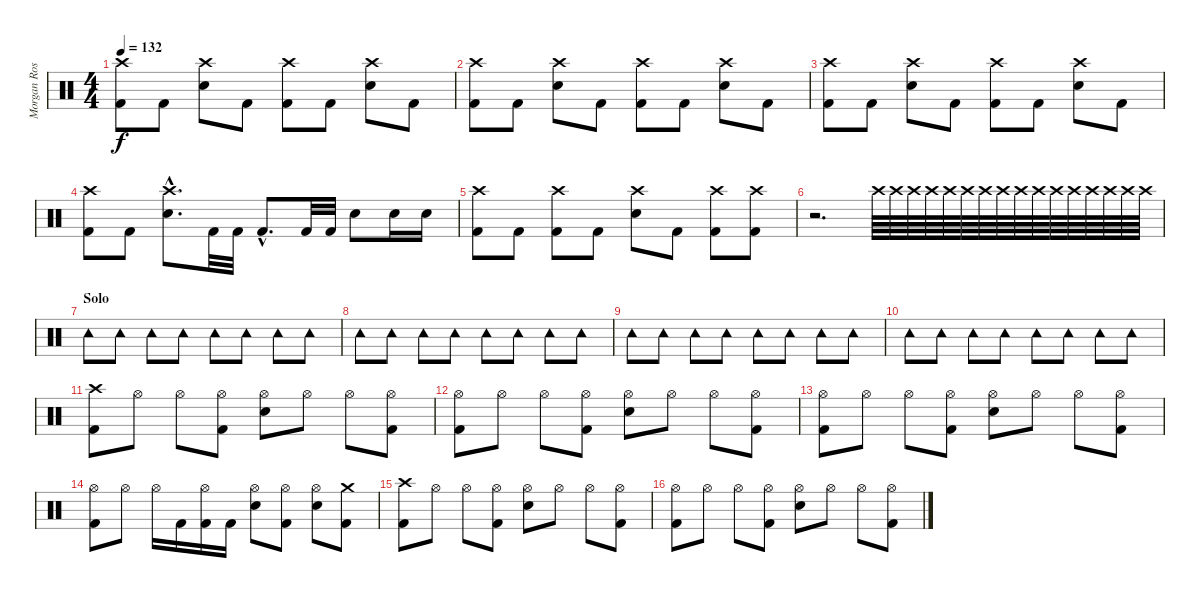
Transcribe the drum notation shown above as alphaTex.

\track ("Morgan Rose" "Morgan Ros") {instrument percussion}
\staff {score}
\articulation defaults
\ts (4 4)
\tempo 132
\clef neutral
\ks c
("Crash high (hit)" "Kick (hit) 2").8{dy f} "Kick (hit) 2".8 ("Crash high (hit)" "Electric Snare (hit)").8 "Kick (hit) 2".8 ("Crash high (hit)" "Kick (hit) 2").8 "Kick (hit) 2".8 ("Crash high (hit)" "Electric Snare (hit)").8 "Kick (hit) 2".8 |
("Crash high (hit)" "Kick (hit) 2").8 "Kick (hit) 2".8 ("Crash high (hit)" "Electric Snare (hit)").8 "Kick (hit) 2".8 ("Crash high (hit)" "Kick (hit) 2").8 "Kick (hit) 2".8 ("Crash high (hit)" "Electric Snare (hit)").8 "Kick (hit) 2".8 |
("Crash high (hit)" "Kick (hit) 2").8 "Kick (hit) 2".8 ("Crash high (hit)" "Electric Snare (hit)").8 "Kick (hit) 2".8 ("Crash high (hit)" "Kick (hit) 2").8 "Kick (hit) 2".8 ("Crash high (hit)" "Electric Snare (hit)").8 "Kick (hit) 2".8 |
("Crash high (hit)" "Kick (hit) 2").8 "Kick (hit) 2".8 ("Crash high (hit)"{hac} "Electric Snare (hit)"{hac}).8{d} "Kick (hit) 2".32 "Kick (hit) 2".32 "Kick (hit) 2"{hac}.8{d} "Kick (hit) 2".32 "Kick (hit) 2".32 "Electric Snare (hit)".8 "Electric Snare (hit)".16 "Electric Snare (hit)".16 |
("Crash high (hit)" "Kick (hit) 2").8 "Kick (hit) 2".8 ("Crash high (hit)" "Kick (hit) 2").8 "Kick (hit) 2".8 ("Crash high (hit)" "Electric Snare (hit)").8 "Kick (hit) 2".8 ("Crash high (hit)" "Kick (hit) 2").8 ("Crash high (hit)" "Kick (hit) 2").8 |
r.2{d} "Crash high (hit)".64{volume 0} "Crash high (hit)".64{volume 13} "Crash high (hit)".64 "Crash high (hit)".64 "Crash high (hit)".64 "Crash high (hit)".64 "Crash high (hit)".64 "Crash high (hit)".64 "Crash high (hit)".64 "Crash high (hit)".64 "Crash high (hit)".64 "Crash high (hit)".64 "Crash high (hit)".64 "Crash high (hit)".64 "Crash high (hit)".64 "Crash high (hit)".64 |
\section ("" "Solo")
"Tambourine (hit)".8 "Tambourine (hit)".8 "Tambourine (hit)".8 "Tambourine (hit)".8 "Tambourine (hit)".8 "Tambourine (hit)".8 "Tambourine (hit)".8 "Tambourine (hit)".8 |
"Tambourine (hit)".8 "Tambourine (hit)".8 "Tambourine (hit)".8 "Tambourine (hit)".8 "Tambourine (hit)".8 "Tambourine (hit)".8 "Tambourine (hit)".8 "Tambourine (hit)".8 |
"Tambourine (hit)".8 "Tambourine (hit)".8 "Tambourine (hit)".8 "Tambourine (hit)".8 "Tambourine (hit)".8 "Tambourine (hit)".8 "Tambourine (hit)".8 "Tambourine (hit)".8 |
"Tambourine (hit)".8 "Tambourine (hit)".8 "Tambourine (hit)".8 "Tambourine (hit)".8 "Tambourine (hit)".8 "Tambourine (hit)".8 "Tambourine (hit)".8 "Tambourine (hit)".8 |
("Crash high (hit)" "Kick (hit) 2").8 "Hi-Hat (open)".8 "Hi-Hat (open)".8 ("Hi-Hat (open)" "Kick (hit) 2").8 ("Hi-Hat (open)" "Electric Snare (hit)").8 "Hi-Hat (open)".8 "Hi-Hat (open)".8 ("Hi-Hat (open)" "Kick (hit) 2").8 |
("Hi-Hat (open)" "Kick (hit) 2").8 "Hi-Hat (open)".8 "Hi-Hat (open)".8 ("Hi-Hat (open)" "Kick (hit) 2").8 ("Hi-Hat (open)" "Electric Snare (hit)").8 "Hi-Hat (open)".8 "Hi-Hat (open)".8 ("Hi-Hat (open)" "Kick (hit) 2").8 |
("Hi-Hat (open)" "Kick (hit) 2").8 "Hi-Hat (open)".8 "Hi-Hat (open)".8 ("Hi-Hat (open)" "Kick (hit) 2").8 ("Hi-Hat (open)" "Electric Snare (hit)").8 "Hi-Hat (open)".8 "Hi-Hat (open)".8 ("Hi-Hat (open)" "Kick (hit) 2").8 |
("Hi-Hat (open)" "Kick (hit) 2").8 "Hi-Hat (open)".8 "Hi-Hat (open)".16 "Kick (hit) 2".16 ("Hi-Hat (open)" "Kick (hit) 2").16 "Kick (hit) 2".16 ("Hi-Hat (open)" "Electric Snare (hit)").8 ("Hi-Hat (open)" "Kick (hit) 2").8 ("Hi-Hat (open)" "Electric Snare (hit)").8 ("Crash medium (hit)" "Kick (hit) 2").8 |
("Crash high (hit)" "Kick (hit) 2").8 "Hi-Hat (open)".8 "Hi-Hat (open)".8 ("Hi-Hat (open)" "Kick (hit) 2").8 ("Hi-Hat (open)" "Electric Snare (hit)").8 "Hi-Hat (open)".8 "Hi-Hat (open)".8 ("Hi-Hat (open)" "Kick (hit) 2").8 |
("Hi-Hat (open)" "Kick (hit) 2").8 "Hi-Hat (open)".8 "Hi-Hat (open)".8 ("Hi-Hat (open)" "Kick (hit) 2").8 ("Hi-Hat (open)" "Electric Snare (hit)").8 "Hi-Hat (open)".8 "Hi-Hat (open)".8 ("Hi-Hat (open)" "Kick (hit) 2").8
